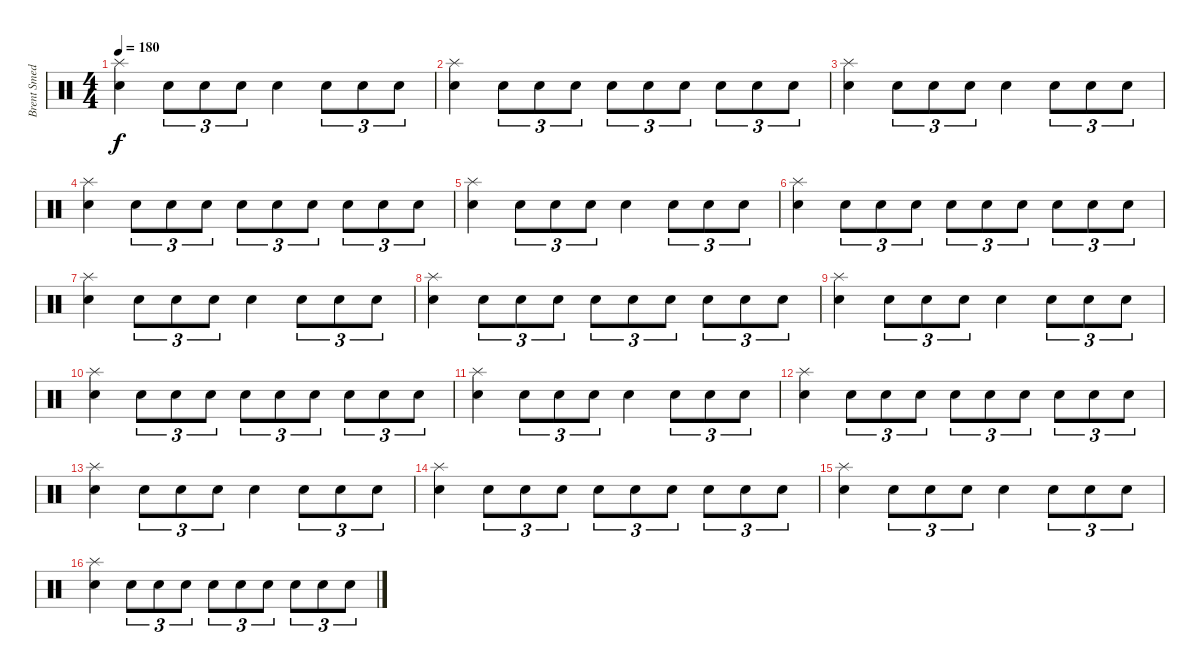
\track ("Brent Smedley" "Brent Smed") {instrument percussion}
\staff {score}
\articulation defaults
\ts (4 4)
\tempo 180
\clef neutral
\ks c
("Splash (hit)" "Snare (hit) 2").4{dy f} "Snare (hit) 2".8{tu (3 2)} "Snare (hit) 2".8{tu (3 2)} "Snare (hit) 2".8{tu (3 2)} "Snare (hit) 2".4 "Snare (hit) 2".8{tu (3 2)} "Snare (hit) 2".8{tu (3 2)} "Snare (hit) 2".8{tu (3 2)} |
("Splash (hit)" "Snare (hit) 2").4 "Snare (hit) 2".8{tu (3 2)} "Snare (hit) 2".8{tu (3 2)} "Snare (hit) 2".8{tu (3 2)} "Snare (hit) 2".8{tu (3 2)} "Snare (hit) 2".8{tu (3 2)} "Snare (hit) 2".8{tu (3 2)} "Snare (hit) 2".8{tu (3 2)} "Snare (hit) 2".8{tu (3 2)} "Snare (hit) 2".8{tu (3 2)} |
("Splash (hit)" "Snare (hit) 2").4 "Snare (hit) 2".8{tu (3 2)} "Snare (hit) 2".8{tu (3 2)} "Snare (hit) 2".8{tu (3 2)} "Snare (hit) 2".4 "Snare (hit) 2".8{tu (3 2)} "Snare (hit) 2".8{tu (3 2)} "Snare (hit) 2".8{tu (3 2)} |
("Splash (hit)" "Snare (hit) 2").4 "Snare (hit) 2".8{tu (3 2)} "Snare (hit) 2".8{tu (3 2)} "Snare (hit) 2".8{tu (3 2)} "Snare (hit) 2".8{tu (3 2)} "Snare (hit) 2".8{tu (3 2)} "Snare (hit) 2".8{tu (3 2)} "Snare (hit) 2".8{tu (3 2)} "Snare (hit) 2".8{tu (3 2)} "Snare (hit) 2".8{tu (3 2)} |
("Splash (hit)" "Snare (hit) 2").4 "Snare (hit) 2".8{tu (3 2)} "Snare (hit) 2".8{tu (3 2)} "Snare (hit) 2".8{tu (3 2)} "Snare (hit) 2".4 "Snare (hit) 2".8{tu (3 2)} "Snare (hit) 2".8{tu (3 2)} "Snare (hit) 2".8{tu (3 2)} |
("Splash (hit)" "Snare (hit) 2").4 "Snare (hit) 2".8{tu (3 2)} "Snare (hit) 2".8{tu (3 2)} "Snare (hit) 2".8{tu (3 2)} "Snare (hit) 2".8{tu (3 2)} "Snare (hit) 2".8{tu (3 2)} "Snare (hit) 2".8{tu (3 2)} "Snare (hit) 2".8{tu (3 2)} "Snare (hit) 2".8{tu (3 2)} "Snare (hit) 2".8{tu (3 2)} |
("Splash (hit)" "Snare (hit) 2").4 "Snare (hit) 2".8{tu (3 2)} "Snare (hit) 2".8{tu (3 2)} "Snare (hit) 2".8{tu (3 2)} "Snare (hit) 2".4 "Snare (hit) 2".8{tu (3 2)} "Snare (hit) 2".8{tu (3 2)} "Snare (hit) 2".8{tu (3 2)} |
("Splash (hit)" "Snare (hit) 2").4 "Snare (hit) 2".8{tu (3 2)} "Snare (hit) 2".8{tu (3 2)} "Snare (hit) 2".8{tu (3 2)} "Snare (hit) 2".8{tu (3 2)} "Snare (hit) 2".8{tu (3 2)} "Snare (hit) 2".8{tu (3 2)} "Snare (hit) 2".8{tu (3 2)} "Snare (hit) 2".8{tu (3 2)} "Snare (hit) 2".8{tu (3 2)} |
("Splash (hit)" "Snare (hit) 2").4 "Snare (hit) 2".8{tu (3 2)} "Snare (hit) 2".8{tu (3 2)} "Snare (hit) 2".8{tu (3 2)} "Snare (hit) 2".4 "Snare (hit) 2".8{tu (3 2)} "Snare (hit) 2".8{tu (3 2)} "Snare (hit) 2".8{tu (3 2)} |
("Splash (hit)" "Snare (hit) 2").4 "Snare (hit) 2".8{tu (3 2)} "Snare (hit) 2".8{tu (3 2)} "Snare (hit) 2".8{tu (3 2)} "Snare (hit) 2".8{tu (3 2)} "Snare (hit) 2".8{tu (3 2)} "Snare (hit) 2".8{tu (3 2)} "Snare (hit) 2".8{tu (3 2)} "Snare (hit) 2".8{tu (3 2)} "Snare (hit) 2".8{tu (3 2)} |
("Splash (hit)" "Snare (hit) 2").4 "Snare (hit) 2".8{tu (3 2)} "Snare (hit) 2".8{tu (3 2)} "Snare (hit) 2".8{tu (3 2)} "Snare (hit) 2".4 "Snare (hit) 2".8{tu (3 2)} "Snare (hit) 2".8{tu (3 2)} "Snare (hit) 2".8{tu (3 2)} |
("Splash (hit)" "Snare (hit) 2").4 "Snare (hit) 2".8{tu (3 2)} "Snare (hit) 2".8{tu (3 2)} "Snare (hit) 2".8{tu (3 2)} "Snare (hit) 2".8{tu (3 2)} "Snare (hit) 2".8{tu (3 2)} "Snare (hit) 2".8{tu (3 2)} "Snare (hit) 2".8{tu (3 2)} "Snare (hit) 2".8{tu (3 2)} "Snare (hit) 2".8{tu (3 2)} |
("Splash (hit)" "Snare (hit) 2").4 "Snare (hit) 2".8{tu (3 2)} "Snare (hit) 2".8{tu (3 2)} "Snare (hit) 2".8{tu (3 2)} "Snare (hit) 2".4 "Snare (hit) 2".8{tu (3 2)} "Snare (hit) 2".8{tu (3 2)} "Snare (hit) 2".8{tu (3 2)} |
("Splash (hit)" "Snare (hit) 2").4 "Snare (hit) 2".8{tu (3 2)} "Snare (hit) 2".8{tu (3 2)} "Snare (hit) 2".8{tu (3 2)} "Snare (hit) 2".8{tu (3 2)} "Snare (hit) 2".8{tu (3 2)} "Snare (hit) 2".8{tu (3 2)} "Snare (hit) 2".8{tu (3 2)} "Snare (hit) 2".8{tu (3 2)} "Snare (hit) 2".8{tu (3 2)} |
("Splash (hit)" "Snare (hit) 2").4 "Snare (hit) 2".8{tu (3 2)} "Snare (hit) 2".8{tu (3 2)} "Snare (hit) 2".8{tu (3 2)} "Snare (hit) 2".4 "Snare (hit) 2".8{tu (3 2)} "Snare (hit) 2".8{tu (3 2)} "Snare (hit) 2".8{tu (3 2)} |
("Splash (hit)" "Snare (hit) 2").4 "Snare (hit) 2".8{tu (3 2)} "Snare (hit) 2".8{tu (3 2)} "Snare (hit) 2".8{tu (3 2)} "Snare (hit) 2".8{tu (3 2)} "Snare (hit) 2".8{tu (3 2)} "Snare (hit) 2".8{tu (3 2)} "Snare (hit) 2".8{tu (3 2)} "Snare (hit) 2".8{tu (3 2)} "Snare (hit) 2".8{tu (3 2)}
